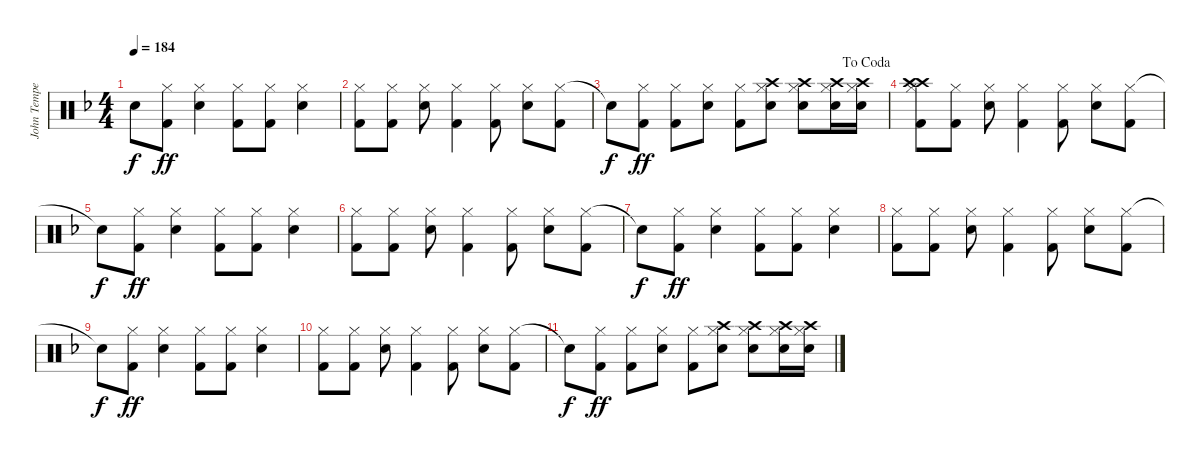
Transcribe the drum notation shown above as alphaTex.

\track ("John Tempesta " "John Tempe") {instrument percussion}
\staff {score}
\articulation defaults
\ts (4 4)
\tempo 184
\clef neutral
\ks f "Snare (hit)"{t}.8{dy f}
("Hi-Hat (closed)" "Kick (hit) 2").8{dy ff} ("Hi-Hat (closed)" "Electric Snare (hit)").4 ("Hi-Hat (closed)" "Kick (hit) 2").8 ("Hi-Hat (closed)" "Kick (hit) 2").8 ("Hi-Hat (closed)" "Electric Snare (hit)").4 |
("Hi-Hat (closed)" "Kick (hit) 2").8 ("Hi-Hat (closed)" "Kick (hit) 2").8 ("Hi-Hat (closed)" "Electric Snare (hit)").8 ("Hi-Hat (closed)" "Kick (hit) 2").4 ("Hi-Hat (closed)" "Kick (hit) 2").8 ("Hi-Hat (closed)" "Electric Snare (hit)").8 ("Hi-Hat (closed)" "Kick (hit) 2").8 |
\jump dacoda "Snare (hit)"{t}.8{dy f}
("Hi-Hat (closed)" "Kick (hit) 2").8{dy ff} ("Hi-Hat (closed)" "Kick (hit) 2").8 ("Hi-Hat (closed)" "Electric Snare (hit)").8 ("Hi-Hat (closed)" "Kick (hit) 2").8 ("Crash high (hit)" "Hi-Hat (closed)" "Electric Snare (hit)").8 ("Crash high (hit)" "Hi-Hat (closed)" "Electric Snare (hit)").8 ("Crash high (hit)" "Hi-Hat (closed)" "Electric Snare (hit)").16 ("Crash high (hit)" "Hi-Hat (closed)" "Electric Snare (hit)").16 |
("Hi-Hat (closed)" "Kick (hit) 2" "Crash high (hit)" "Crash high (hit)").8 ("Hi-Hat (closed)" "Kick (hit) 2").8 ("Hi-Hat (closed)" "Electric Snare (hit)").8 ("Hi-Hat (closed)" "Kick (hit) 2").4 ("Hi-Hat (closed)" "Kick (hit) 2").8 ("Hi-Hat (closed)" "Electric Snare (hit)").8 ("Hi-Hat (closed)" "Kick (hit) 2").8 |
"Snare (hit)"{t}.8{dy f} ("Hi-Hat (closed)" "Kick (hit) 2").8{dy ff} ("Hi-Hat (closed)" "Electric Snare (hit)").4 ("Hi-Hat (closed)" "Kick (hit) 2").8 ("Hi-Hat (closed)" "Kick (hit) 2").8 ("Hi-Hat (closed)" "Electric Snare (hit)").4 |
("Hi-Hat (closed)" "Kick (hit) 2").8 ("Hi-Hat (closed)" "Kick (hit) 2").8 ("Hi-Hat (closed)" "Electric Snare (hit)").8 ("Hi-Hat (closed)" "Kick (hit) 2").4 ("Hi-Hat (closed)" "Kick (hit) 2").8 ("Hi-Hat (closed)" "Electric Snare (hit)").8 ("Hi-Hat (closed)" "Kick (hit) 2").8 |
"Snare (hit)"{t}.8{dy f} ("Hi-Hat (closed)" "Kick (hit) 2").8{dy ff} ("Hi-Hat (closed)" "Electric Snare (hit)").4 ("Hi-Hat (closed)" "Kick (hit) 2").8 ("Hi-Hat (closed)" "Kick (hit) 2").8 ("Hi-Hat (closed)" "Electric Snare (hit)").4 |
("Hi-Hat (closed)" "Kick (hit) 2").8 ("Hi-Hat (closed)" "Kick (hit) 2").8 ("Hi-Hat (closed)" "Electric Snare (hit)").8 ("Hi-Hat (closed)" "Kick (hit) 2").4 ("Hi-Hat (closed)" "Kick (hit) 2").8 ("Hi-Hat (closed)" "Electric Snare (hit)").8 ("Hi-Hat (closed)" "Kick (hit) 2").8 |
"Snare (hit)"{t}.8{dy f} ("Hi-Hat (closed)" "Kick (hit) 2").8{dy ff} ("Hi-Hat (closed)" "Electric Snare (hit)").4 ("Hi-Hat (closed)" "Kick (hit) 2").8 ("Hi-Hat (closed)" "Kick (hit) 2").8 ("Hi-Hat (closed)" "Electric Snare (hit)").4 |
("Hi-Hat (closed)" "Kick (hit) 2").8 ("Hi-Hat (closed)" "Kick (hit) 2").8 ("Hi-Hat (closed)" "Electric Snare (hit)").8 ("Hi-Hat (closed)" "Kick (hit) 2").4 ("Hi-Hat (closed)" "Kick (hit) 2").8 ("Hi-Hat (closed)" "Electric Snare (hit)").8 ("Hi-Hat (closed)" "Kick (hit) 2").8 |
"Snare (hit)"{t}.8{dy f} ("Hi-Hat (closed)" "Kick (hit) 2").8{dy ff} ("Hi-Hat (closed)" "Kick (hit) 2").8 ("Hi-Hat (closed)" "Electric Snare (hit)").8 ("Hi-Hat (closed)" "Kick (hit) 2").8 ("Crash high (hit)" "Hi-Hat (closed)" "Electric Snare (hit)").8 ("Crash high (hit)" "Hi-Hat (closed)" "Electric Snare (hit)").8 ("Crash high (hit)" "Hi-Hat (closed)" "Electric Snare (hit)").16 ("Crash high (hit)" "Hi-Hat (closed)" "Electric Snare (hit)").16
